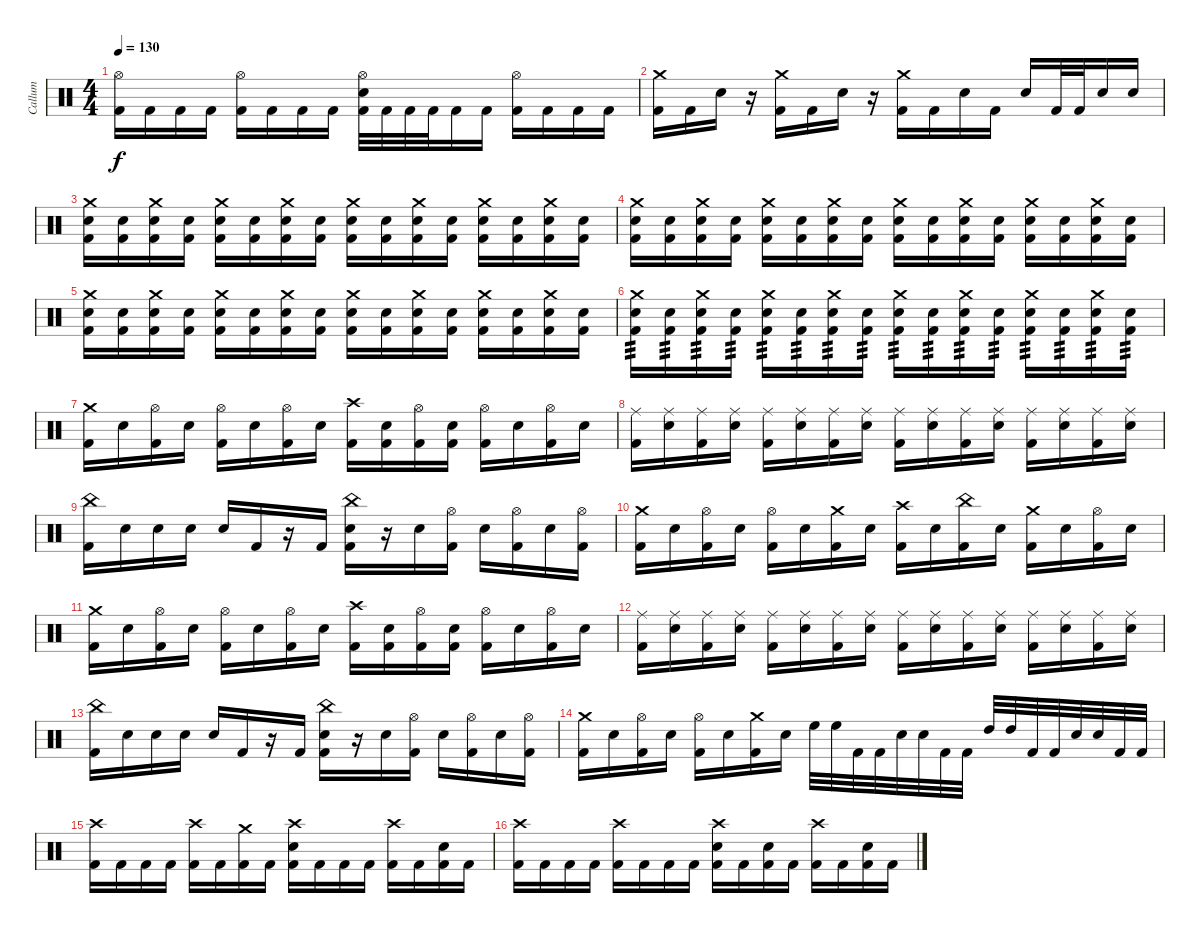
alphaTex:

\track ("Callum" "Callum") {instrument percussion}
\staff {score}
\articulation defaults
\ts (4 4)
\tempo 130
\clef neutral
\ks c
("Hi-Hat (open)" "Kick (hit) 2").16{dy f} "Kick (hit) 2".16 "Kick (hit) 2".16 "Kick (hit) 2".16 ("Hi-Hat (open)" "Kick (hit) 2").16 "Kick (hit) 2".16 "Kick (hit) 2".16 "Kick (hit) 2".16 ("Hi-Hat (open)" "Electric Snare (hit)" "Kick (hit) 2").32 "Kick (hit) 2".32 "Kick (hit) 2".32 "Kick (hit) 2".32 "Kick (hit) 2".16 "Kick (hit) 2".16 ("Hi-Hat (open)" "Kick (hit) 2").16 "Kick (hit) 2".16 "Kick (hit) 2".16 "Kick (hit) 2".16 |
("Crash medium (hit)" "Kick (hit) 2").16 "Kick (hit) 2".16 "Electric Snare (hit)".16 r.16 ("Crash medium (hit)" "Kick (hit) 2").16 "Kick (hit) 2".16 "Electric Snare (hit)".16 r.16 ("Crash medium (hit)" "Kick (hit) 2").16 "Kick (hit) 2".16 "Electric Snare (hit)".16 "Kick (hit) 2".16 "Electric Snare (hit)".16 "Kick (hit) 2".32 "Kick (hit) 2".32 "Electric Snare (hit)".16 "Electric Snare (hit)".16 |
("Crash medium (hit)" "Electric Snare (hit)" "Kick (hit) 2").16 ("Electric Snare (hit)" "Kick (hit) 2").16 ("Crash medium (hit)" "Electric Snare (hit)" "Kick (hit) 2").16 ("Electric Snare (hit)" "Kick (hit) 2").16 ("Crash medium (hit)" "Electric Snare (hit)" "Kick (hit) 2").16 ("Electric Snare (hit)" "Kick (hit) 2").16 ("Crash medium (hit)" "Electric Snare (hit)" "Kick (hit) 2").16 ("Electric Snare (hit)" "Kick (hit) 2").16 ("Crash medium (hit)" "Electric Snare (hit)" "Kick (hit) 2").16 ("Electric Snare (hit)" "Kick (hit) 2").16 ("Crash medium (hit)" "Electric Snare (hit)" "Kick (hit) 2").16 ("Electric Snare (hit)" "Kick (hit) 2").16 ("Crash medium (hit)" "Electric Snare (hit)" "Kick (hit) 2").16 ("Electric Snare (hit)" "Kick (hit) 2").16 ("Crash medium (hit)" "Electric Snare (hit)" "Kick (hit) 2").16 ("Electric Snare (hit)" "Kick (hit) 2").16 |
("Crash medium (hit)" "Electric Snare (hit)" "Kick (hit) 2").16 ("Electric Snare (hit)" "Kick (hit) 2").16 ("Crash medium (hit)" "Electric Snare (hit)" "Kick (hit) 2").16 ("Electric Snare (hit)" "Kick (hit) 2").16 ("Crash medium (hit)" "Electric Snare (hit)" "Kick (hit) 2").16 ("Electric Snare (hit)" "Kick (hit) 2").16 ("Crash medium (hit)" "Electric Snare (hit)" "Kick (hit) 2").16 ("Electric Snare (hit)" "Kick (hit) 2").16 ("Crash medium (hit)" "Electric Snare (hit)" "Kick (hit) 2").16 ("Electric Snare (hit)" "Kick (hit) 2").16 ("Crash medium (hit)" "Electric Snare (hit)" "Kick (hit) 2").16 ("Electric Snare (hit)" "Kick (hit) 2").16 ("Crash medium (hit)" "Electric Snare (hit)" "Kick (hit) 2").16 ("Electric Snare (hit)" "Kick (hit) 2").16 ("Crash medium (hit)" "Electric Snare (hit)" "Kick (hit) 2").16 ("Electric Snare (hit)" "Kick (hit) 2").16 |
("Crash medium (hit)" "Electric Snare (hit)" "Kick (hit) 2").16 ("Electric Snare (hit)" "Kick (hit) 2").16 ("Crash medium (hit)" "Electric Snare (hit)" "Kick (hit) 2").16 ("Electric Snare (hit)" "Kick (hit) 2").16 ("Crash medium (hit)" "Electric Snare (hit)" "Kick (hit) 2").16 ("Electric Snare (hit)" "Kick (hit) 2").16 ("Crash medium (hit)" "Electric Snare (hit)" "Kick (hit) 2").16 ("Electric Snare (hit)" "Kick (hit) 2").16 ("Crash medium (hit)" "Electric Snare (hit)" "Kick (hit) 2").16 ("Electric Snare (hit)" "Kick (hit) 2").16 ("Crash medium (hit)" "Electric Snare (hit)" "Kick (hit) 2").16 ("Electric Snare (hit)" "Kick (hit) 2").16 ("Crash medium (hit)" "Electric Snare (hit)" "Kick (hit) 2").16 ("Electric Snare (hit)" "Kick (hit) 2").16 ("Crash medium (hit)" "Electric Snare (hit)" "Kick (hit) 2").16 ("Electric Snare (hit)" "Kick (hit) 2").16 |
("Crash medium (hit)" "Electric Snare (hit)" "Kick (hit) 2").16{tp 3} ("Electric Snare (hit)" "Kick (hit) 2").16{tp 3} ("Crash medium (hit)" "Electric Snare (hit)" "Kick (hit) 2").16{tp 3} ("Electric Snare (hit)" "Kick (hit) 2").16{tp 3} ("Crash medium (hit)" "Electric Snare (hit)" "Kick (hit) 2").16{tp 3} ("Electric Snare (hit)" "Kick (hit) 2").16{tp 3} ("Crash medium (hit)" "Electric Snare (hit)" "Kick (hit) 2").16{tp 3} ("Electric Snare (hit)" "Kick (hit) 2").16{tp 3} ("Crash medium (hit)" "Electric Snare (hit)" "Kick (hit) 2").16{tp 3} ("Electric Snare (hit)" "Kick (hit) 2").16{tp 3} ("Crash medium (hit)" "Electric Snare (hit)" "Kick (hit) 2").16{tp 3} ("Electric Snare (hit)" "Kick (hit) 2").16{tp 3} ("Crash medium (hit)" "Electric Snare (hit)" "Kick (hit) 2").16{tp 3} ("Electric Snare (hit)" "Kick (hit) 2").16{tp 3} ("Crash medium (hit)" "Electric Snare (hit)" "Kick (hit) 2").16{tp 3} ("Electric Snare (hit)" "Kick (hit) 2").16{tp 3} |
("Crash medium (hit)" "Kick (hit) 2").16 "Electric Snare (hit)".16 ("Hi-Hat (open)" "Kick (hit) 2").16 "Electric Snare (hit)".16 ("Hi-Hat (open)" "Kick (hit) 2").16 "Electric Snare (hit)".16 ("Hi-Hat (open)" "Kick (hit) 2").16 "Electric Snare (hit)".16 ("Crash high (hit)" "Kick (hit) 2").16 ("Electric Snare (hit)" "Kick (hit) 2").16 ("Hi-Hat (open)" "Kick (hit) 2").16 ("Electric Snare (hit)" "Kick (hit) 2").16 ("Hi-Hat (open)" "Kick (hit) 2").16 "Electric Snare (hit)".16 ("Hi-Hat (open)" "Kick (hit) 2").16 "Electric Snare (hit)".16 |
("Ride (middle)" "Kick (hit) 2").16 ("Ride (middle)" "Electric Snare (hit)").16 ("Ride (middle)" "Kick (hit) 2").16 ("Ride (middle)" "Electric Snare (hit)").16 ("Ride (middle)" "Kick (hit) 2").16 ("Ride (middle)" "Electric Snare (hit)").16 ("Ride (middle)" "Kick (hit) 2").16 ("Ride (middle)" "Electric Snare (hit)").16 ("Ride (middle)" "Kick (hit) 2").16 ("Ride (middle)" "Electric Snare (hit)").16 ("Ride (middle)" "Kick (hit) 2").16 ("Ride (middle)" "Electric Snare (hit)").16 ("Ride (middle)" "Kick (hit) 2").16 ("Ride (middle)" "Electric Snare (hit)").16 ("Ride (middle)" "Kick (hit) 2").16 ("Ride (middle)" "Electric Snare (hit)").16 |
("China (hit)" "Kick (hit) 2").16 "Electric Snare (hit)".16 "Electric Snare (hit)".16 "Electric Snare (hit)".16 "Electric Snare (hit)".16 "Kick (hit) 2".16 r.16 "Kick (hit) 2".16 ("China (hit)" "Electric Snare (hit)" "Kick (hit) 2").16 r.16 "Electric Snare (hit)".16 ("Hi-Hat (open)" "Kick (hit) 2").16 "Electric Snare (hit)".16 ("Hi-Hat (open)" "Kick (hit) 2").16 "Electric Snare (hit)".16 ("Hi-Hat (open)" "Kick (hit) 2").16 |
("Crash medium (hit)" "Kick (hit) 2").16 "Electric Snare (hit)".16 ("Hi-Hat (open)" "Kick (hit) 2").16 "Electric Snare (hit)".16 ("Hi-Hat (open)" "Kick (hit) 2").16 "Electric Snare (hit)".16 ("Crash medium (hit)" "Kick (hit) 2").16 "Electric Snare (hit)".16 ("Crash high (hit)" "Kick (hit) 2").16 "Electric Snare (hit)".16 ("China (hit)" "Kick (hit) 2").16 "Electric Snare (hit)".16 ("Crash medium (hit)" "Kick (hit) 2").16 "Electric Snare (hit)".16 ("Hi-Hat (open)" "Kick (hit) 2").16 "Electric Snare (hit)".16 |
("Crash medium (hit)" "Kick (hit) 2").16 "Electric Snare (hit)".16 ("Hi-Hat (open)" "Kick (hit) 2").16 "Electric Snare (hit)".16 ("Hi-Hat (open)" "Kick (hit) 2").16 "Electric Snare (hit)".16 ("Hi-Hat (open)" "Kick (hit) 2").16 "Electric Snare (hit)".16 ("Crash high (hit)" "Kick (hit) 2").16 ("Electric Snare (hit)" "Kick (hit) 2").16 ("Hi-Hat (open)" "Kick (hit) 2").16 ("Electric Snare (hit)" "Kick (hit) 2").16 ("Hi-Hat (open)" "Kick (hit) 2").16 "Electric Snare (hit)".16 ("Hi-Hat (open)" "Kick (hit) 2").16 "Electric Snare (hit)".16 |
("Ride (middle)" "Kick (hit) 2").16 ("Ride (middle)" "Electric Snare (hit)").16 ("Ride (middle)" "Kick (hit) 2").16 ("Ride (middle)" "Electric Snare (hit)").16 ("Ride (middle)" "Kick (hit) 2").16 ("Ride (middle)" "Electric Snare (hit)").16 ("Ride (middle)" "Kick (hit) 2").16 ("Ride (middle)" "Electric Snare (hit)").16 ("Ride (middle)" "Kick (hit) 2").16 ("Ride (middle)" "Electric Snare (hit)").16 ("Ride (middle)" "Kick (hit) 2").16 ("Ride (middle)" "Electric Snare (hit)").16 ("Ride (middle)" "Kick (hit) 2").16 ("Ride (middle)" "Electric Snare (hit)").16 ("Ride (middle)" "Kick (hit) 2").16 ("Ride (middle)" "Electric Snare (hit)").16 |
("China (hit)" "Kick (hit) 2").16 "Electric Snare (hit)".16 "Electric Snare (hit)".16 "Electric Snare (hit)".16 "Electric Snare (hit)".16 "Kick (hit) 2".16 r.16 "Kick (hit) 2".16 ("China (hit)" "Electric Snare (hit)" "Kick (hit) 2").16 r.16 "Electric Snare (hit)".16 ("Hi-Hat (open)" "Kick (hit) 2").16 "Electric Snare (hit)".16 ("Hi-Hat (open)" "Kick (hit) 2").16 "Electric Snare (hit)".16 ("Hi-Hat (open)" "Kick (hit) 2").16 |
("Crash medium (hit)" "Kick (hit) 2").16 "Electric Snare (hit)".16 ("Hi-Hat (open)" "Kick (hit) 2").16 "Electric Snare (hit)".16 ("Hi-Hat (open)" "Kick (hit) 2").16 "Electric Snare (hit)".16 ("Crash medium (hit)" "Kick (hit) 2").16 "Electric Snare (hit)".16 "High Floor Tom (hit)".32 "High Floor Tom (hit)".32 "Kick (hit) 2".32 "Kick (hit) 2".32 "Electric Snare (hit)".32 "Electric Snare (hit)".32 "Kick (hit) 2".32 "Kick (hit) 2".32 "High Tom (hit)".32 "High Tom (hit)".32 "Kick (hit) 2".32 "Kick (hit) 2".32 "Electric Snare (hit)".32 "Electric Snare (hit)".32 "Kick (hit) 2".32 "Kick (hit) 2".32 |
("Crash high (hit)" "Kick (hit) 2").16 "Kick (hit) 2".16 "Kick (hit) 2".16 "Kick (hit) 2".16 ("Crash high (hit)" "Kick (hit) 2").16 "Kick (hit) 2".16 ("Crash medium (hit)" "Kick (hit) 2").16 "Kick (hit) 2".16 ("Crash high (hit)" "Electric Snare (hit)" "Kick (hit) 2").16 "Kick (hit) 2".16 "Kick (hit) 2".16 "Kick (hit) 2".16 ("Crash high (hit)" "Kick (hit) 2").16 "Kick (hit) 2".16 ("Electric Snare (hit)" "Kick (hit) 2").16 "Kick (hit) 2".16 |
("Crash high (hit)" "Kick (hit) 2").16 "Kick (hit) 2".16 "Kick (hit) 2".16 "Kick (hit) 2".16 ("Crash high (hit)" "Kick (hit) 2").16 "Kick (hit) 2".16 "Kick (hit) 2".16 "Kick (hit) 2".16 ("Crash high (hit)" "Electric Snare (hit)" "Kick (hit) 2").16 "Kick (hit) 2".16 ("Electric Snare (hit)" "Kick (hit) 2").16 "Kick (hit) 2".16 ("Crash high (hit)" "Kick (hit) 2").16 "Kick (hit) 2".16 ("Electric Snare (hit)" "Kick (hit) 2").16 "Kick (hit) 2".16
